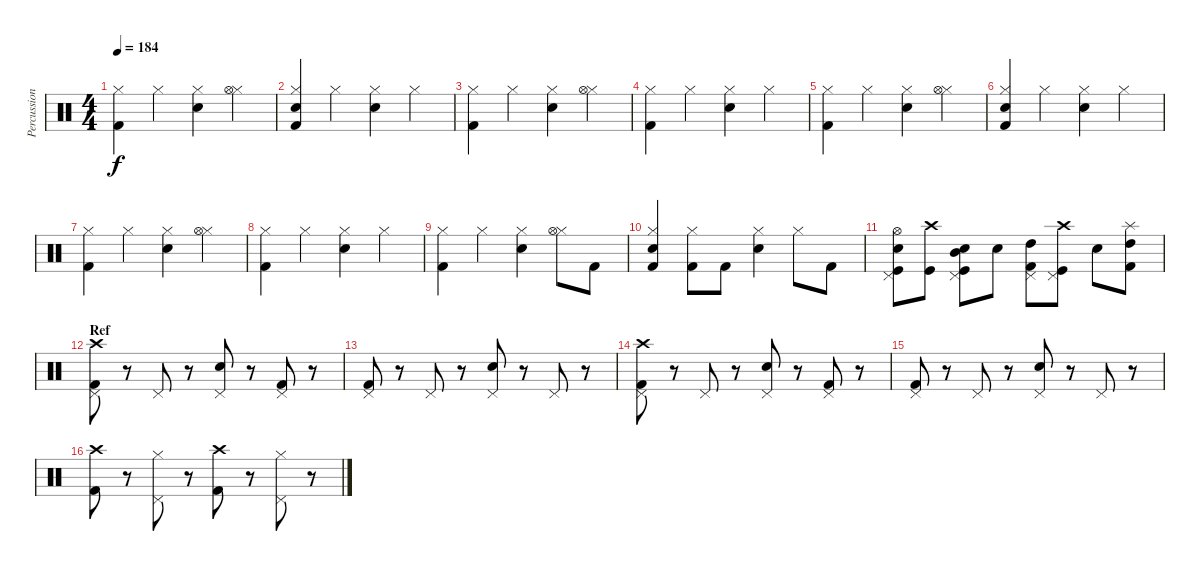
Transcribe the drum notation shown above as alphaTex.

\track ("Percussion" "Percussion") {instrument percussion}
\staff {score}
\articulation defaults
\ts (4 4)
\tempo 184
\clef neutral
\ks c
("Kick (hit) 2" "Hi-Hat (closed)").4{dy f} "Hi-Hat (closed)".4 ("Snare (hit) 2" "Hi-Hat (closed)").4 ("Hi-Hat (closed)" "Hi-Hat (open)").4 |
("Kick (hit) 2" "Hi-Hat (closed)" "Snare (hit)").4 "Hi-Hat (closed)".4 ("Snare (hit) 2" "Hi-Hat (closed)").4 "Hi-Hat (closed)".4 |
("Kick (hit) 2" "Hi-Hat (closed)").4 "Hi-Hat (closed)".4 ("Snare (hit) 2" "Hi-Hat (closed)").4 ("Hi-Hat (closed)" "Hi-Hat (open)").4 |
("Kick (hit) 2" "Hi-Hat (closed)").4 "Hi-Hat (closed)".4 ("Snare (hit) 2" "Hi-Hat (closed)").4 "Hi-Hat (closed)".4 |
("Kick (hit) 2" "Hi-Hat (closed)").4 "Hi-Hat (closed)".4 ("Snare (hit) 2" "Hi-Hat (closed)").4 ("Hi-Hat (closed)" "Hi-Hat (open)").4 |
("Kick (hit) 2" "Hi-Hat (closed)" "Snare (hit)").4 "Hi-Hat (closed)".4 ("Snare (hit) 2" "Hi-Hat (closed)").4 "Hi-Hat (closed)".4 |
("Kick (hit) 2" "Hi-Hat (closed)").4 "Hi-Hat (closed)".4 ("Snare (hit) 2" "Hi-Hat (closed)").4 ("Hi-Hat (closed)" "Hi-Hat (open)").4 |
("Kick (hit) 2" "Hi-Hat (closed)").4 "Hi-Hat (closed)".4 ("Snare (hit) 2" "Hi-Hat (closed)").4 "Hi-Hat (closed)".4 |
("Kick (hit) 2" "Hi-Hat (closed)").4 "Hi-Hat (closed)".4 ("Snare (hit) 2" "Hi-Hat (closed)").4 ("Hi-Hat (closed)" "Hi-Hat (open)").8 "Kick (hit) 2".8 |
("Kick (hit) 2" "Hi-Hat (closed)" "Snare (hit)").4 ("Kick (hit) 2" "Hi-Hat (closed)").8 "Kick (hit) 2".8 ("Snare (hit) 2" "Hi-Hat (closed)").4 "Hi-Hat (closed)".8 "Kick (hit) 2".8 |
("Kick (hit)" "Snare (hit) 2" "Hi-Hat (open)" "Pedal Hi-Hat (hit)").8 ("Kick (hit)" "Crash high (hit)").8 ("Kick (hit)" "Snare (hit) 2" "Mid Tom (hit)" "Pedal Hi-Hat (hit)").8 "Snare (hit) 2".8 ("Kick (hit) 2" "High Tom (hit)" "Pedal Hi-Hat (hit)").8 ("Crash high (hit)" "Kick (hit)" "Pedal Hi-Hat (hit)").8 "Snare (hit) 2".8 ("Kick (hit) 2" "High Tom (hit)" "Splash (hit)").8 |
\section ("" "Ref")
("Kick (hit) 2" "Crash high (hit)" "Pedal Hi-Hat (hit)").8 r.8 "Pedal Hi-Hat (hit)".8 r.8 ("Snare (hit) 2" "Pedal Hi-Hat (hit)").8 r.8 ("Kick (hit) 2" "Pedal Hi-Hat (hit)").8 r.8 |
("Kick (hit) 2" "Pedal Hi-Hat (hit)").8 r.8 "Pedal Hi-Hat (hit)".8 r.8 ("Snare (hit) 2" "Pedal Hi-Hat (hit)").8 r.8 "Pedal Hi-Hat (hit)".8 r.8 |
("Kick (hit) 2" "Crash high (hit)" "Pedal Hi-Hat (hit)").8 r.8 "Pedal Hi-Hat (hit)".8 r.8 ("Snare (hit) 2" "Pedal Hi-Hat (hit)").8 r.8 ("Kick (hit) 2" "Pedal Hi-Hat (hit)").8 r.8 |
("Kick (hit) 2" "Pedal Hi-Hat (hit)").8 r.8 "Pedal Hi-Hat (hit)".8 r.8 ("Snare (hit) 2" "Pedal Hi-Hat (hit)").8 r.8 "Pedal Hi-Hat (hit)".8 r.8 |
("Kick (hit) 2" "Crash high (hit)").8 r.8 ("Pedal Hi-Hat (hit)" "Hi-Hat (closed)").8 r.8 ("Kick (hit) 2" "Crash high (hit)").8 r.8 ("Pedal Hi-Hat (hit)" "Hi-Hat (closed)").8 r.8
